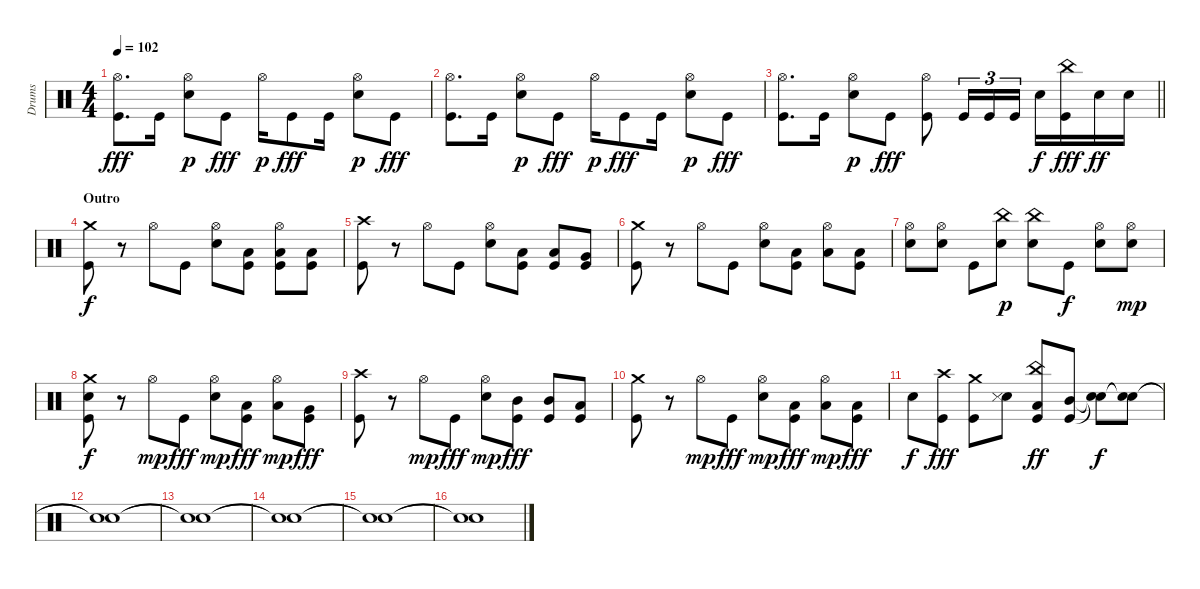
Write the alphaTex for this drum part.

\track ("Drums" "Drums") {instrument percussion}
\staff
\articulation defaults
\ts (4 4)
\tempo 102
\clef neutral
\ks c
("Hi-Hat (open)" "Kick (hit)").8{d dy fff} "Kick (hit)".16 ("Hi-Hat (open)" "Electric Snare (hit)").8{dy p} "Kick (hit)".8{dy fff} "Hi-Hat (open)".16{dy p} "Kick (hit)".8{dy fff} "Kick (hit)".16 ("Hi-Hat (open)" "Electric Snare (hit)").8{dy p} "Kick (hit)".8{dy fff} |
("Hi-Hat (open)" "Kick (hit)").8{d} "Kick (hit)".16 ("Hi-Hat (open)" "Electric Snare (hit)").8{dy p} "Kick (hit)".8{dy fff} "Hi-Hat (open)".16{dy p} "Kick (hit)".8{dy fff} "Kick (hit)".16 ("Hi-Hat (open)" "Electric Snare (hit)").8{dy p} "Kick (hit)".8{dy fff} |
\barLineRight lightlight
("Hi-Hat (open)" "Kick (hit)").8{d} "Kick (hit)".16 ("Hi-Hat (open)" "Electric Snare (hit)").8{dy p} "Kick (hit)".8{dy fff} ("Hi-Hat (open)" "Kick (hit)").8 "Kick (hit)".16{tu (3 2)} "Kick (hit)".16{tu (3 2)} "Kick (hit)".16{tu (3 2)} "Electric Snare (hit)".16{dy f} ("China (hit)" "Kick (hit)").16{dy fff} "Electric Snare (hit)".16{dy ff} "Electric Snare (hit)".16 |
\section ("" "Outro")
("Crash medium (hit)" "Kick (hit)").8{dy f} r.8 "Hi-Hat (open)".8 "Kick (hit)".8 ("Hi-Hat (open)" "Electric Snare (hit)").8 ("Low Tom (hit)" "Kick (hit)").8 ("Hi-Hat (open)" "Low Tom (hit)" "Kick (hit)").8 ("Low Tom (hit)" "Kick (hit)").8 |
("Crash high (hit)" "Kick (hit)").8 r.8 "Hi-Hat (open)".8 "Kick (hit)".8 ("Hi-Hat (open)" "Electric Snare (hit)").8 ("Low Tom (hit)" "Kick (hit)").8 ("Low Tom (hit)" "Kick (hit)").8 ("Very Low Tom (hit)" "Kick (hit)").8 |
("Crash medium (hit)" "Kick (hit)").8 r.8 "Hi-Hat (open)".8 "Kick (hit)".8 ("Hi-Hat (open)" "Electric Snare (hit)").8 ("Low Tom (hit)" "Kick (hit)").8 ("Hi-Hat (open)" "Low Tom (hit)").8 ("Low Tom (hit)" "Kick (hit)").8 |
("Hi-Hat (open)" "Electric Snare (hit)").8 ("Hi-Hat (open)" "Electric Snare (hit)").8 "Kick (hit)".8 ("China (hit)" "Electric Snare (hit)").8{dy p} ("China (hit)" "Electric Snare (hit)").8 "Kick (hit)".8{dy f} ("Hi-Hat (open)" "Electric Snare (hit)").8 ("Hi-Hat (open)" "Electric Snare (hit)").8{dy mp} |
("Crash medium (hit)" "Electric Snare (hit)" "Kick (hit)").8{dy f} r.8 "Hi-Hat (open)".8{dy mp} "Kick (hit)".8{dy fff} ("Hi-Hat (open)" "Electric Snare (hit)").8{dy mp} ("Low Tom (hit)" "Kick (hit)").8{dy fff} ("Hi-Hat (open)" "Low Tom (hit)").8{dy mp} ("Very Low Tom (hit)" "Kick (hit)").8{dy fff} |
("Crash high (hit)" "Kick (hit)").8 r.8 "Hi-Hat (open)".8{dy mp} "Kick (hit)".8{dy fff} ("Hi-Hat (open)" "Electric Snare (hit)").8{dy mp} ("Mid Tom (hit)" "Kick (hit)").8{dy fff} ("Mid Tom (hit)" "Kick (hit)").8 ("Low Tom (hit)" "Kick (hit)").8 |
("Crash medium (hit)" "Kick (hit)").8 r.8 "Hi-Hat (open)".8{dy mp} "Kick (hit)".8{dy fff} ("Hi-Hat (open)" "Electric Snare (hit)").8{dy mp} ("Low Tom (hit)" "Kick (hit)").8{dy fff} ("Hi-Hat (open)" "Low Tom (hit)").8{dy mp} ("Low Tom (hit)" "Kick (hit)").8{dy fff} |
"Electric Snare (hit)".8{dy f} ("Crash high (hit)" "Kick (hit)").8{dy fff} ("Crash medium (hit)" "Kick (hit)").8 ("Electric Snare (hit)" "Snare (side stick) 3").8 ("China (hit)" "Low Tom (hit)" "Kick (hit)").8{dy ff} ("Mid Tom (hit)" "Kick (hit)").8 ("Snare (hit)"{t} "Snare (hit)"{t}).8{dy f} ("Snare (hit)"{t} "Snare (hit)"{t}).8 |
("Snare (hit)"{t} "Snare (hit)"{t}).1 |
("Snare (hit)"{t} "Snare (hit)"{t}).1 |
("Snare (hit)"{t} "Snare (hit)"{t}).1 |
("Snare (hit)"{t} "Snare (hit)"{t}).1 |
("Snare (hit)"{t} "Snare (hit)"{t}).1
